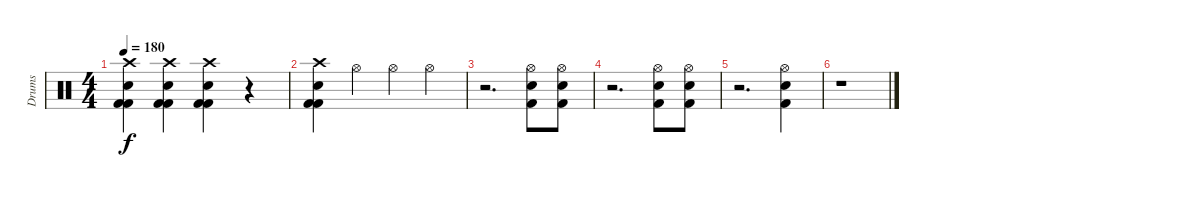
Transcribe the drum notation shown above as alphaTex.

\track ("Drums" "Drums") {instrument percussion}
\staff {score}
\articulation defaults
\ts (4 4)
\tempo 180
\clef neutral
\ks c
("Crash high (hit)" "Snare (hit) 2" "Kick (hit) 2" "Kick (hit) 2").4{dy f} ("Crash high (hit)" "Electric Snare (hit)" "Kick (hit) 2" "Kick (hit) 2").4 ("Crash high (hit)" "Snare (hit) 2" "Kick (hit) 2" "Kick (hit) 2").4 r.4 |
("Crash high (hit)" "Snare (hit) 2" "Kick (hit) 2" "Kick (hit) 2").4 "Hi-Hat (open)".4 "Hi-Hat (open)".4 "Hi-Hat (open)".4 |
r.2{d} ("Hi-Hat (open)" "Snare (hit) 2" "Kick (hit) 2").8 ("Hi-Hat (open)" "Snare (hit) 2" "Kick (hit) 2").8 |
r.2{d} ("Hi-Hat (open)" "Snare (hit) 2" "Kick (hit) 2").8 ("Hi-Hat (open)" "Snare (hit) 2" "Kick (hit) 2").8 |
r.2{d} ("Hi-Hat (open)" "Snare (hit) 2" "Kick (hit) 2").4 |
r.1
